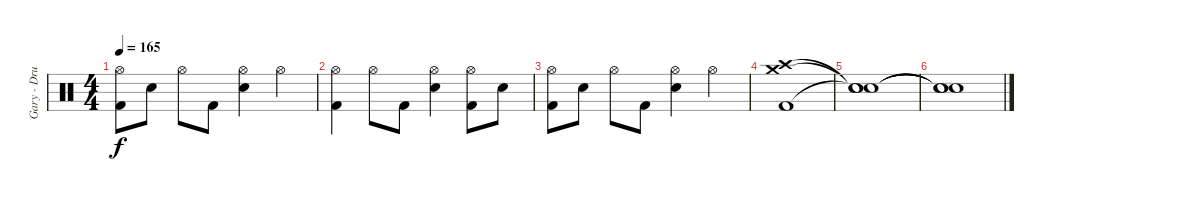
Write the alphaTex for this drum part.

\track ("Gary - Drums" "Gary - Dru") {instrument percussion}
\staff {score}
\articulation defaults
\ts (4 4)
\tempo 165
\clef neutral
\ks c
("Hi-Hat (open)" "Kick (hit) 2").8{dy f} "Snare (hit) 2".8 "Hi-Hat (open)".8 "Kick (hit) 2".8 ("Hi-Hat (open)" "Snare (hit) 2").4 "Hi-Hat (open)".4 |
("Hi-Hat (open)" "Kick (hit) 2").4 "Hi-Hat (open)".8 "Kick (hit) 2".8 ("Hi-Hat (open)" "Snare (hit) 2").4 ("Hi-Hat (open)" "Kick (hit) 2").8 "Snare (hit) 2".8 |
("Hi-Hat (open)" "Kick (hit) 2").8 "Snare (hit) 2".8 "Hi-Hat (open)".8 "Kick (hit) 2".8 ("Hi-Hat (open)" "Snare (hit) 2").4 "Hi-Hat (open)".4 |
("Crash high (hit)" "Crash medium (hit)" "Kick (hit) 2").1 |
("Snare (hit)"{t} "Snare (hit)"{t} "Snare (hit)"{t}).1 |
("Snare (hit)"{t} "Snare (hit)"{t} "Snare (hit)"{t}).1
